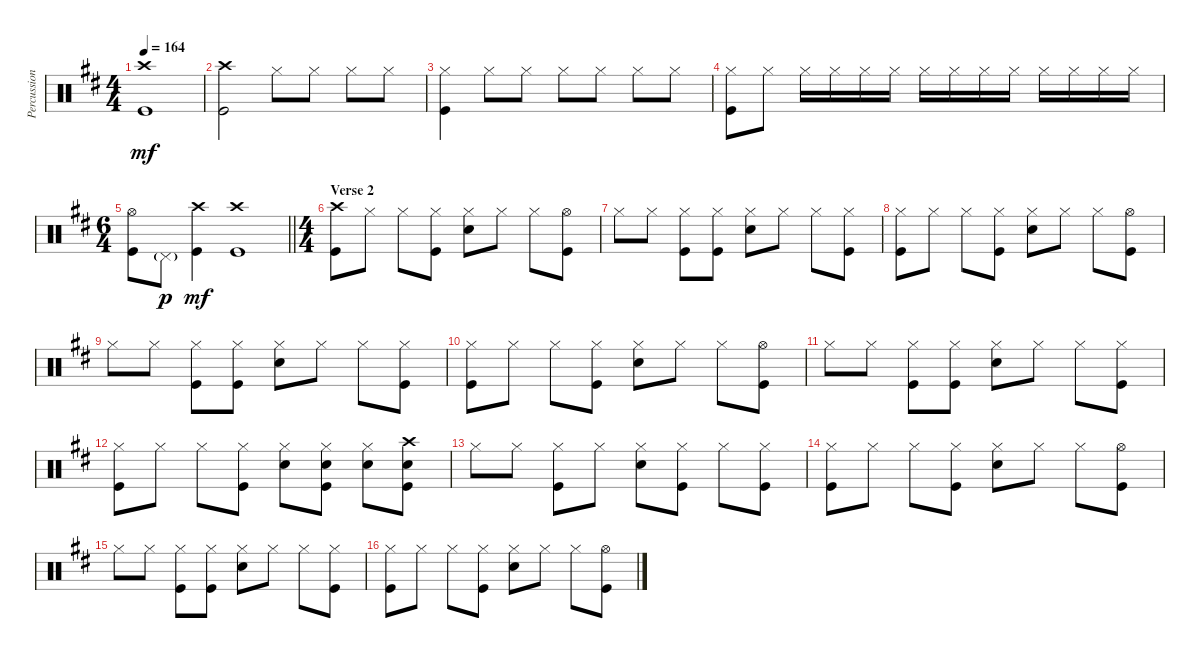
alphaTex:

\track ("Percussions" "Percussion") {instrument percussion}
\staff {score}
\articulation defaults
\ts (4 4)
\tempo 164
\clef neutral
\ks bminor
("Crash high (hit)" "Kick (hit)").1{dy mf} |
("Crash high (hit)" "Kick (hit)").2 "Hi-Hat (closed)".8 "Hi-Hat (closed)".8 "Hi-Hat (closed)".8 "Hi-Hat (closed)".8 |
("Hi-Hat (closed)" "Kick (hit)").4 "Hi-Hat (closed)".8 "Hi-Hat (closed)".8 "Hi-Hat (closed)".8 "Hi-Hat (closed)".8 "Hi-Hat (closed)".8 "Hi-Hat (closed)".8 |
("Hi-Hat (closed)" "Kick (hit)").8 "Hi-Hat (closed)".8 "Hi-Hat (closed)".16 "Hi-Hat (closed)".16 "Hi-Hat (closed)".16 "Hi-Hat (closed)".16 "Hi-Hat (closed)".16 "Hi-Hat (closed)".16 "Hi-Hat (closed)".16 "Hi-Hat (closed)".16 "Hi-Hat (closed)".16 "Hi-Hat (closed)".16 "Hi-Hat (closed)".16 "Hi-Hat (closed)".16 |
\ts (6 4)
\barLineRight lightlight
("Hi-Hat (open)" "Kick (hit)").8 "Pedal Hi-Hat (hit)"{g}.8{dy p} ("Crash high (hit)" "Kick (hit)").4{dy mf} ("Crash high (hit)" "Kick (hit)").1 |
\ts (4 4)
\section ("" "Verse 2")
("Crash high (hit)" "Kick (hit)").8 "Hi-Hat (closed)".8 "Hi-Hat (closed)".8 ("Hi-Hat (closed)" "Kick (hit)").8 ("Hi-Hat (closed)" "Electric Snare (hit)").8 "Hi-Hat (closed)".8 "Hi-Hat (closed)".8 ("Hi-Hat (open)" "Kick (hit)").8 |
"Hi-Hat (closed)".8 "Hi-Hat (closed)".8 ("Hi-Hat (closed)" "Kick (hit)").8 ("Hi-Hat (closed)" "Kick (hit)").8 ("Hi-Hat (closed)" "Electric Snare (hit)").8 "Hi-Hat (closed)".8 "Hi-Hat (closed)".8 ("Hi-Hat (closed)" "Kick (hit)").8 |
("Hi-Hat (closed)" "Kick (hit)").8 "Hi-Hat (closed)".8 "Hi-Hat (closed)".8 ("Hi-Hat (closed)" "Kick (hit)").8 ("Hi-Hat (closed)" "Electric Snare (hit)").8 "Hi-Hat (closed)".8 "Hi-Hat (closed)".8 ("Hi-Hat (open)" "Kick (hit)").8 |
"Hi-Hat (closed)".8 "Hi-Hat (closed)".8 ("Hi-Hat (closed)" "Kick (hit)").8 ("Hi-Hat (closed)" "Kick (hit)").8 ("Hi-Hat (closed)" "Electric Snare (hit)").8 "Hi-Hat (closed)".8 "Hi-Hat (closed)".8 ("Hi-Hat (closed)" "Kick (hit)").8 |
("Hi-Hat (closed)" "Kick (hit)").8 "Hi-Hat (closed)".8 "Hi-Hat (closed)".8 ("Hi-Hat (closed)" "Kick (hit)").8 ("Hi-Hat (closed)" "Electric Snare (hit)").8 "Hi-Hat (closed)".8 "Hi-Hat (closed)".8 ("Hi-Hat (open)" "Kick (hit)").8 |
"Hi-Hat (closed)".8 "Hi-Hat (closed)".8 ("Hi-Hat (closed)" "Kick (hit)").8 ("Hi-Hat (closed)" "Kick (hit)").8 ("Hi-Hat (closed)" "Electric Snare (hit)").8 "Hi-Hat (closed)".8 "Hi-Hat (closed)".8 ("Hi-Hat (closed)" "Kick (hit)").8 |
("Hi-Hat (closed)" "Kick (hit)").8 "Hi-Hat (closed)".8 "Hi-Hat (closed)".8 ("Hi-Hat (closed)" "Kick (hit)").8 ("Hi-Hat (closed)" "Electric Snare (hit)").8 ("Hi-Hat (closed)" "Electric Snare (hit)" "Kick (hit)").8 ("Hi-Hat (closed)" "Electric Snare (hit)").8 ("Crash high (hit)" "Electric Snare (hit)" "Kick (hit)").8 |
"Hi-Hat (closed)".8 "Hi-Hat (closed)".8 ("Hi-Hat (closed)" "Kick (hit)").8 "Hi-Hat (closed)".8 ("Hi-Hat (closed)" "Electric Snare (hit)").8 ("Hi-Hat (closed)" "Kick (hit)").8 "Hi-Hat (closed)".8 ("Hi-Hat (closed)" "Kick (hit)").8 |
("Hi-Hat (closed)" "Kick (hit)").8 "Hi-Hat (closed)".8 "Hi-Hat (closed)".8 ("Hi-Hat (closed)" "Kick (hit)").8 ("Hi-Hat (closed)" "Electric Snare (hit)").8 "Hi-Hat (closed)".8 "Hi-Hat (closed)".8 ("Hi-Hat (open)" "Kick (hit)").8 |
"Hi-Hat (closed)".8 "Hi-Hat (closed)".8 ("Hi-Hat (closed)" "Kick (hit)").8 ("Hi-Hat (closed)" "Kick (hit)").8 ("Hi-Hat (closed)" "Electric Snare (hit)").8 "Hi-Hat (closed)".8 "Hi-Hat (closed)".8 ("Hi-Hat (closed)" "Kick (hit)").8 |
("Hi-Hat (closed)" "Kick (hit)").8 "Hi-Hat (closed)".8 "Hi-Hat (closed)".8 ("Hi-Hat (closed)" "Kick (hit)").8 ("Hi-Hat (closed)" "Electric Snare (hit)").8 "Hi-Hat (closed)".8 "Hi-Hat (closed)".8 ("Hi-Hat (open)" "Kick (hit)").8
